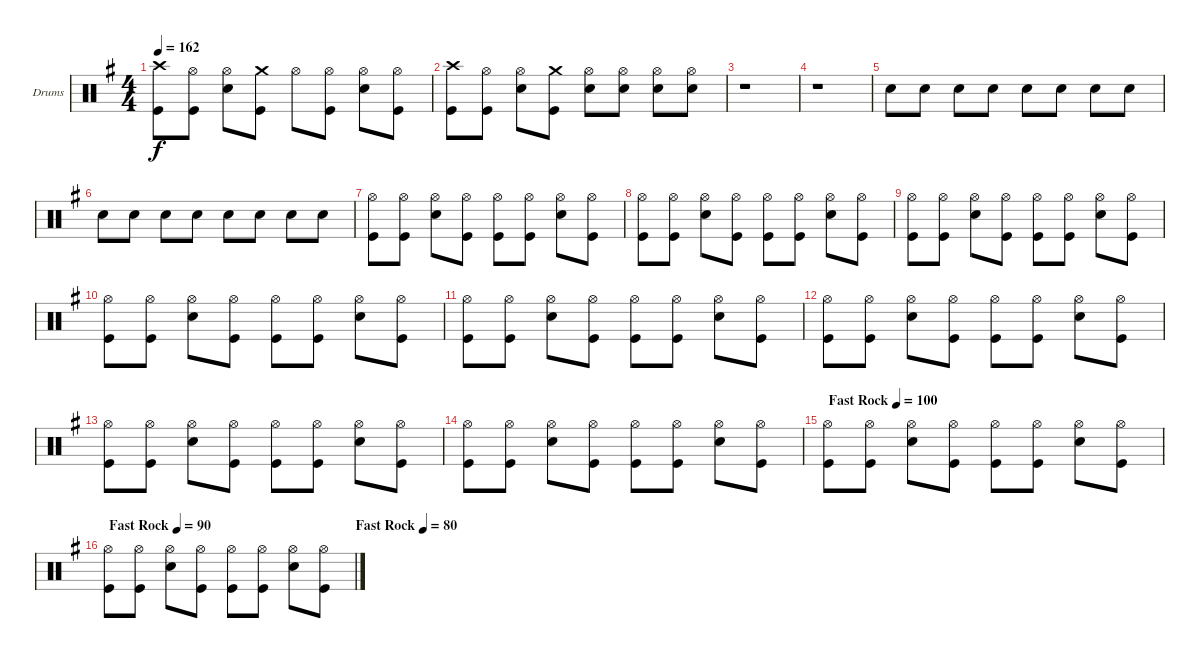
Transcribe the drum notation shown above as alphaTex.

\defaultSystemsLayout 4
\bracketExtendMode groupsimilarinstruments
\firstSystemTrackNameOrientation horizontal
\otherSystemsTrackNameOrientation horizontal
\track ("Drumkit" "Drums") {instrument percussion}
\staff {score}
\articulation defaults
\ts (4 4)
\tempo 162
\clef neutral
\ks g
("Crash high (hit)" "Kick (hit)").8{dy f} ("Hi-Hat (open)" "Kick (hit)").8 ("Hi-Hat (open)" "Snare (hit) 2").8 ("Crash medium (hit)" "Kick (hit)").8 "Hi-Hat (open)".8 ("Hi-Hat (open)" "Kick (hit)").8 ("Hi-Hat (open)" "Snare (hit) 2").8 ("Hi-Hat (open)" "Kick (hit)").8 |
("Crash high (hit)" "Kick (hit)").8 ("Hi-Hat (open)" "Kick (hit)").8 ("Hi-Hat (open)" "Snare (hit) 2").8 ("Crash medium (hit)" "Kick (hit)").8 ("Hi-Hat (open)" "Snare (hit) 2").8 ("Hi-Hat (open)" "Snare (hit) 2").8 ("Hi-Hat (open)" "Snare (hit) 2").8 ("Hi-Hat (open)" "Snare (hit) 2").8 |
r.1 |
r.1 |
"Snare (hit) 2".8 "Snare (hit) 2".8 "Snare (hit) 2".8 "Snare (hit) 2".8 "Snare (hit) 2".8 "Snare (hit) 2".8 "Snare (hit) 2".8 "Snare (hit) 2".8 |
"Snare (hit) 2".8 "Snare (hit) 2".8 "Snare (hit) 2".8 "Snare (hit) 2".8 "Snare (hit) 2".8 "Snare (hit) 2".8 "Snare (hit) 2".8 "Snare (hit) 2".8 |
("Hi-Hat (open)" "Kick (hit)").8 ("Hi-Hat (open)" "Kick (hit)").8 ("Hi-Hat (open)" "Snare (hit) 2").8 ("Hi-Hat (open)" "Kick (hit)").8 ("Hi-Hat (open)" "Kick (hit)").8 ("Hi-Hat (open)" "Kick (hit)").8 ("Hi-Hat (open)" "Snare (hit) 2").8 ("Hi-Hat (open)" "Kick (hit)").8 |
("Hi-Hat (open)" "Kick (hit)").8 ("Hi-Hat (open)" "Kick (hit)").8 ("Hi-Hat (open)" "Snare (hit) 2").8 ("Hi-Hat (open)" "Kick (hit)").8 ("Hi-Hat (open)" "Kick (hit)").8 ("Hi-Hat (open)" "Kick (hit)").8 ("Hi-Hat (open)" "Snare (hit) 2").8 ("Hi-Hat (open)" "Kick (hit)").8 |
("Hi-Hat (open)" "Kick (hit)").8 ("Hi-Hat (open)" "Kick (hit)").8 ("Hi-Hat (open)" "Snare (hit) 2").8 ("Hi-Hat (open)" "Kick (hit)").8 ("Hi-Hat (open)" "Kick (hit)").8 ("Hi-Hat (open)" "Kick (hit)").8 ("Hi-Hat (open)" "Snare (hit) 2").8 ("Hi-Hat (open)" "Kick (hit)").8 |
("Hi-Hat (open)" "Kick (hit)").8 ("Hi-Hat (open)" "Kick (hit)").8 ("Hi-Hat (open)" "Snare (hit) 2").8 ("Hi-Hat (open)" "Kick (hit)").8 ("Hi-Hat (open)" "Kick (hit)").8 ("Hi-Hat (open)" "Kick (hit)").8 ("Hi-Hat (open)" "Snare (hit) 2").8 ("Hi-Hat (open)" "Kick (hit)").8 |
("Hi-Hat (open)" "Kick (hit)").8 ("Hi-Hat (open)" "Kick (hit)").8 ("Hi-Hat (open)" "Snare (hit) 2").8 ("Hi-Hat (open)" "Kick (hit)").8 ("Hi-Hat (open)" "Kick (hit)").8 ("Hi-Hat (open)" "Kick (hit)").8 ("Hi-Hat (open)" "Snare (hit) 2").8 ("Hi-Hat (open)" "Kick (hit)").8 |
("Hi-Hat (open)" "Kick (hit)").8 ("Hi-Hat (open)" "Kick (hit)").8 ("Hi-Hat (open)" "Snare (hit) 2").8 ("Hi-Hat (open)" "Kick (hit)").8 ("Hi-Hat (open)" "Kick (hit)").8 ("Hi-Hat (open)" "Kick (hit)").8 ("Hi-Hat (open)" "Snare (hit) 2").8 ("Hi-Hat (open)" "Kick (hit)").8 |
("Hi-Hat (open)" "Kick (hit)").8 ("Hi-Hat (open)" "Kick (hit)").8 ("Hi-Hat (open)" "Snare (hit) 2").8 ("Hi-Hat (open)" "Kick (hit)").8 ("Hi-Hat (open)" "Kick (hit)").8 ("Hi-Hat (open)" "Kick (hit)").8 ("Hi-Hat (open)" "Snare (hit) 2").8 ("Hi-Hat (open)" "Kick (hit)").8 |
("Hi-Hat (open)" "Kick (hit)").8 ("Hi-Hat (open)" "Kick (hit)").8 ("Hi-Hat (open)" "Snare (hit) 2").8 ("Hi-Hat (open)" "Kick (hit)").8 ("Hi-Hat (open)" "Kick (hit)").8 ("Hi-Hat (open)" "Kick (hit)").8 ("Hi-Hat (open)" "Snare (hit) 2").8 ("Hi-Hat (open)" "Kick (hit)").8 |
\tempo (100 "Fast Rock")
("Hi-Hat (open)" "Kick (hit)").8 ("Hi-Hat (open)" "Kick (hit)").8 ("Hi-Hat (open)" "Snare (hit) 2").8 ("Hi-Hat (open)" "Kick (hit)").8 ("Hi-Hat (open)" "Kick (hit)").8 ("Hi-Hat (open)" "Kick (hit)").8 ("Hi-Hat (open)" "Snare (hit) 2").8 ("Hi-Hat (open)" "Kick (hit)").8 |
\tempo (90 "Fast Rock")
\tempo (80 "Fast Rock" 1)
("Hi-Hat (open)" "Kick (hit)").8 ("Hi-Hat (open)" "Kick (hit)").8 ("Hi-Hat (open)" "Snare (hit) 2").8 ("Hi-Hat (open)" "Kick (hit)").8 ("Hi-Hat (open)" "Kick (hit)").8 ("Hi-Hat (open)" "Kick (hit)").8 ("Hi-Hat (open)" "Snare (hit) 2").8 ("Hi-Hat (open)" "Kick (hit)").8
